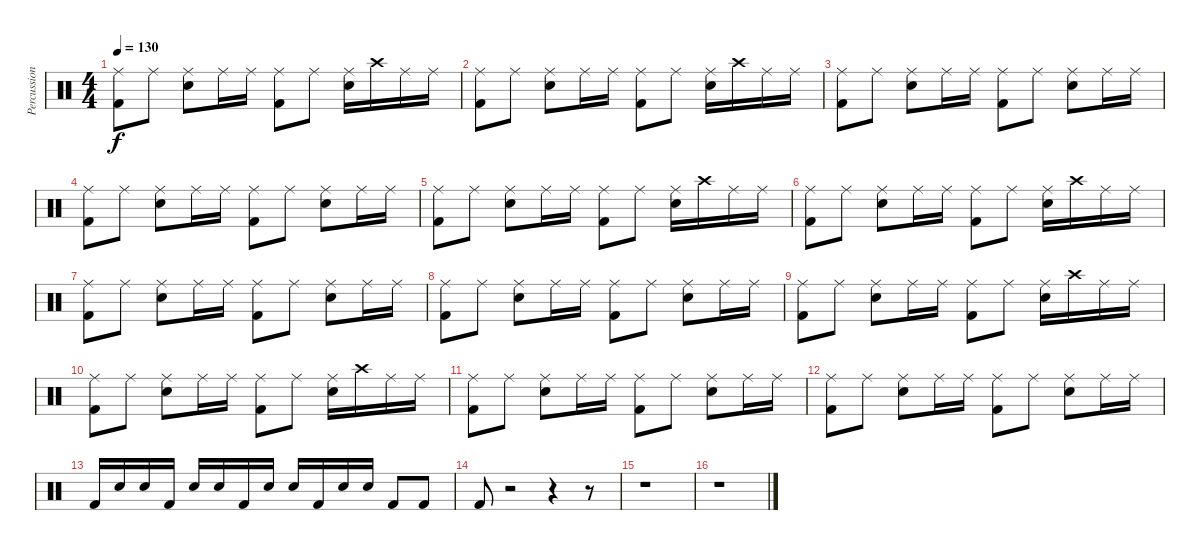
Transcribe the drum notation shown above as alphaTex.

\track ("Percussion" "Percussion") {instrument percussion}
\staff {score}
\articulation defaults
\ts (4 4)
\tempo 130
\clef neutral
\ks c
("Ride (middle)" "Kick (hit) 2").8{dy f} "Ride (middle)".8 ("Ride (middle)" "Snare (hit) 2").8 "Ride (middle)".16 "Ride (middle)".16 ("Ride (middle)" "Kick (hit) 2").8 "Ride (middle)".8 ("Ride (middle)" "Snare (hit) 2").16 "Crash high (hit)".16 "Ride (middle)".16 "Ride (middle)".16 |
("Ride (middle)" "Kick (hit) 2").8 "Ride (middle)".8 ("Ride (middle)" "Snare (hit) 2").8 "Ride (middle)".16 "Ride (middle)".16 ("Ride (middle)" "Kick (hit) 2").8 "Ride (middle)".8 ("Ride (middle)" "Snare (hit) 2").16 "Crash high (hit)".16 "Ride (middle)".16 "Ride (middle)".16 |
("Ride (middle)" "Kick (hit) 2").8 "Ride (middle)".8 ("Ride (middle)" "Snare (hit) 2").8 "Ride (middle)".16 "Ride (middle)".16 ("Ride (middle)" "Kick (hit) 2").8 "Ride (middle)".8 ("Ride (middle)" "Snare (hit) 2").8 "Ride (middle)".16 "Ride (middle)".16 |
("Ride (middle)" "Kick (hit) 2").8 "Ride (middle)".8 ("Ride (middle)" "Snare (hit) 2").8 "Ride (middle)".16 "Ride (middle)".16 ("Ride (middle)" "Kick (hit) 2").8 "Ride (middle)".8 ("Ride (middle)" "Snare (hit) 2").8 "Ride (middle)".16 "Ride (middle)".16 |
("Ride (middle)" "Kick (hit) 2").8 "Ride (middle)".8 ("Ride (middle)" "Snare (hit) 2").8 "Ride (middle)".16 "Ride (middle)".16 ("Ride (middle)" "Kick (hit) 2").8 "Ride (middle)".8 ("Ride (middle)" "Snare (hit) 2").16 "Crash high (hit)".16 "Ride (middle)".16 "Ride (middle)".16 |
("Ride (middle)" "Kick (hit) 2").8 "Ride (middle)".8 ("Ride (middle)" "Snare (hit) 2").8 "Ride (middle)".16 "Ride (middle)".16 ("Ride (middle)" "Kick (hit) 2").8 "Ride (middle)".8 ("Ride (middle)" "Snare (hit) 2").16 "Crash high (hit)".16 "Ride (middle)".16 "Ride (middle)".16 |
("Ride (middle)" "Kick (hit) 2").8 "Ride (middle)".8 ("Ride (middle)" "Snare (hit) 2").8 "Ride (middle)".16 "Ride (middle)".16 ("Ride (middle)" "Kick (hit) 2").8 "Ride (middle)".8 ("Ride (middle)" "Snare (hit) 2").8 "Ride (middle)".16 "Ride (middle)".16 |
("Ride (middle)" "Kick (hit) 2").8 "Ride (middle)".8 ("Ride (middle)" "Snare (hit) 2").8 "Ride (middle)".16 "Ride (middle)".16 ("Ride (middle)" "Kick (hit) 2").8 "Ride (middle)".8 ("Ride (middle)" "Snare (hit) 2").8 "Ride (middle)".16 "Ride (middle)".16 |
("Ride (middle)" "Kick (hit) 2").8 "Ride (middle)".8 ("Ride (middle)" "Snare (hit) 2").8 "Ride (middle)".16 "Ride (middle)".16 ("Ride (middle)" "Kick (hit) 2").8 "Ride (middle)".8 ("Ride (middle)" "Snare (hit) 2").16 "Crash high (hit)".16 "Ride (middle)".16 "Ride (middle)".16 |
("Ride (middle)" "Kick (hit) 2").8 "Ride (middle)".8 ("Ride (middle)" "Snare (hit) 2").8 "Ride (middle)".16 "Ride (middle)".16 ("Ride (middle)" "Kick (hit) 2").8 "Ride (middle)".8 ("Ride (middle)" "Snare (hit) 2").16 "Crash high (hit)".16 "Ride (middle)".16 "Ride (middle)".16 |
("Ride (middle)" "Kick (hit) 2").8 "Ride (middle)".8 ("Ride (middle)" "Snare (hit) 2").8 "Ride (middle)".16 "Ride (middle)".16 ("Ride (middle)" "Kick (hit) 2").8 "Ride (middle)".8 ("Ride (middle)" "Snare (hit) 2").8 "Ride (middle)".16 "Ride (middle)".16 |
("Ride (middle)" "Kick (hit) 2").8 "Ride (middle)".8 ("Ride (middle)" "Snare (hit) 2").8 "Ride (middle)".16 "Ride (middle)".16 ("Ride (middle)" "Kick (hit) 2").8 "Ride (middle)".8 ("Ride (middle)" "Snare (hit) 2").8 "Ride (middle)".16 "Ride (middle)".16 |
"Kick (hit) 2".16 "Snare (hit) 2".16 "Snare (hit) 2".16 "Kick (hit) 2".16 "Snare (hit) 2".16 "Snare (hit) 2".16 "Kick (hit) 2".16 "Snare (hit) 2".16 "Snare (hit) 2".16 "Kick (hit) 2".16 "Snare (hit) 2".16 "Snare (hit) 2".16 "Kick (hit) 2".8 "Kick (hit) 2".8 |
"Kick (hit) 2".8 r.2 r.4 r.8 |
r.1 |
r.1
